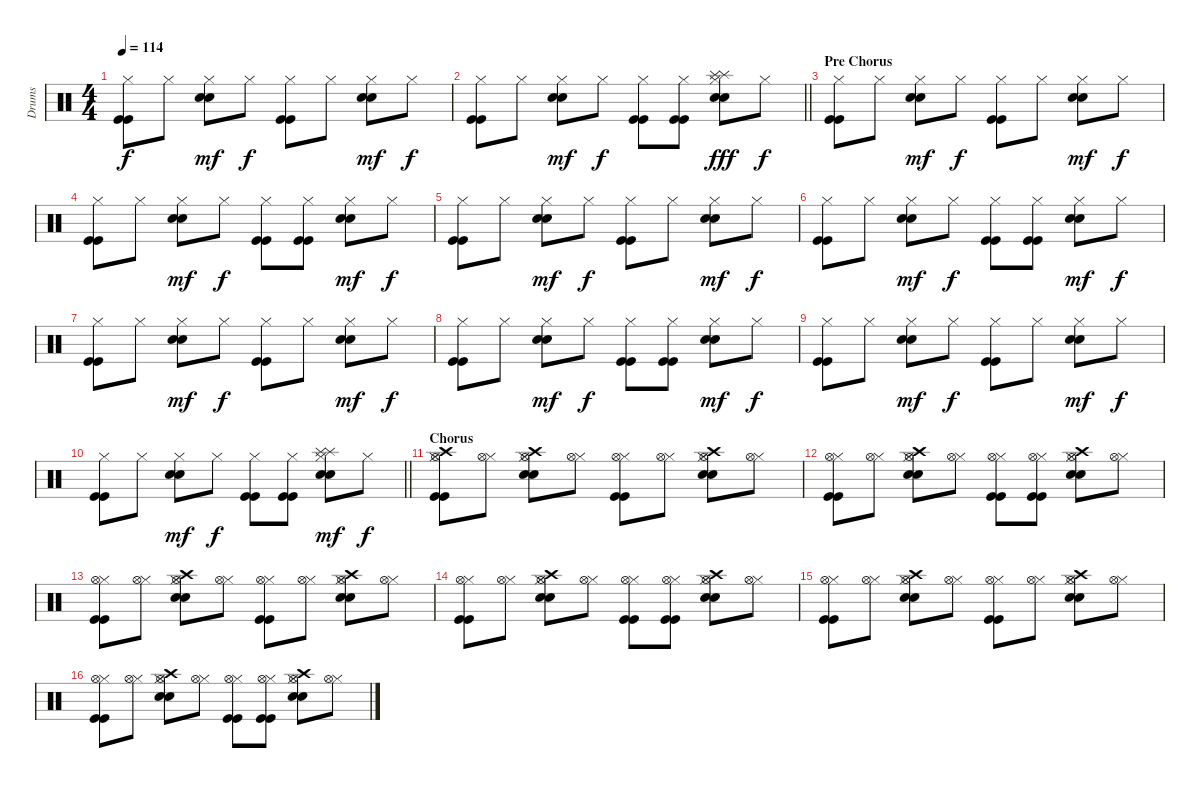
\track ("Drums" "Drums") {instrument percussion}
\staff {score}
\articulation defaults
\ts (4 4)
\tempo 114
\clef neutral
\ks c
("Kick (hit)" "Kick (hit)" "Hi-Hat (closed)").8{dy f} "Hi-Hat (closed)".8 ("Snare (hit) 2" "Snare (hit) 2" "Hi-Hat (closed)").8{dy mf} "Hi-Hat (closed)".8{dy f} ("Kick (hit)" "Kick (hit)" "Hi-Hat (closed)").8 "Hi-Hat (closed)".8 ("Snare (hit) 2" "Snare (hit) 2" "Hi-Hat (closed)").8{dy mf} "Hi-Hat (closed)".8{dy f} |
\barLineRight lightlight
("Kick (hit)" "Kick (hit)" "Hi-Hat (closed)").8 "Hi-Hat (closed)".8 ("Snare (hit) 2" "Snare (hit) 2" "Hi-Hat (closed)").8{dy mf} "Hi-Hat (closed)".8{dy f} ("Kick (hit)" "Kick (hit)" "Hi-Hat (closed)").8 ("Kick (hit)" "Kick (hit)" "Hi-Hat (closed)").8 ("Snare (hit) 2" "Snare (hit) 2" "Hi-Hat (closed)" "Splash (hit)" "Splash (hit)").8{dy fff} "Hi-Hat (closed)".8{dy f} |
\section ("" "Pre Chorus")
("Kick (hit)" "Kick (hit)" "Hi-Hat (closed)").8 "Hi-Hat (closed)".8 ("Snare (hit) 2" "Snare (hit) 2" "Hi-Hat (closed)").8{dy mf} "Hi-Hat (closed)".8{dy f} ("Kick (hit)" "Kick (hit)" "Hi-Hat (closed)").8 "Hi-Hat (closed)".8 ("Snare (hit) 2" "Snare (hit) 2" "Hi-Hat (closed)").8{dy mf} "Hi-Hat (closed)".8{dy f} |
("Kick (hit)" "Kick (hit)" "Hi-Hat (closed)").8 "Hi-Hat (closed)".8 ("Snare (hit) 2" "Snare (hit) 2" "Hi-Hat (closed)").8{dy mf} "Hi-Hat (closed)".8{dy f} ("Kick (hit)" "Kick (hit)" "Hi-Hat (closed)").8 ("Kick (hit)" "Kick (hit)" "Hi-Hat (closed)").8 ("Snare (hit) 2" "Snare (hit) 2" "Hi-Hat (closed)").8{dy mf} "Hi-Hat (closed)".8{dy f} |
("Kick (hit)" "Kick (hit)" "Hi-Hat (closed)").8 "Hi-Hat (closed)".8 ("Snare (hit) 2" "Snare (hit) 2" "Hi-Hat (closed)").8{dy mf} "Hi-Hat (closed)".8{dy f} ("Kick (hit)" "Kick (hit)" "Hi-Hat (closed)").8 "Hi-Hat (closed)".8 ("Snare (hit) 2" "Snare (hit) 2" "Hi-Hat (closed)").8{dy mf} "Hi-Hat (closed)".8{dy f} |
("Kick (hit)" "Kick (hit)" "Hi-Hat (closed)").8 "Hi-Hat (closed)".8 ("Snare (hit) 2" "Snare (hit) 2" "Hi-Hat (closed)").8{dy mf} "Hi-Hat (closed)".8{dy f} ("Kick (hit)" "Kick (hit)" "Hi-Hat (closed)").8 ("Kick (hit)" "Kick (hit)" "Hi-Hat (closed)").8 ("Snare (hit) 2" "Snare (hit) 2" "Hi-Hat (closed)").8{dy mf} "Hi-Hat (closed)".8{dy f} |
("Kick (hit)" "Kick (hit)" "Hi-Hat (closed)").8 "Hi-Hat (closed)".8 ("Snare (hit) 2" "Snare (hit) 2" "Hi-Hat (closed)").8{dy mf} "Hi-Hat (closed)".8{dy f} ("Kick (hit)" "Kick (hit)" "Hi-Hat (closed)").8 "Hi-Hat (closed)".8 ("Snare (hit) 2" "Snare (hit) 2" "Hi-Hat (closed)").8{dy mf} "Hi-Hat (closed)".8{dy f} |
("Kick (hit)" "Kick (hit)" "Hi-Hat (closed)").8 "Hi-Hat (closed)".8 ("Snare (hit) 2" "Snare (hit) 2" "Hi-Hat (closed)").8{dy mf} "Hi-Hat (closed)".8{dy f} ("Kick (hit)" "Kick (hit)" "Hi-Hat (closed)").8 ("Kick (hit)" "Kick (hit)" "Hi-Hat (closed)").8 ("Snare (hit) 2" "Snare (hit) 2" "Hi-Hat (closed)").8{dy mf} "Hi-Hat (closed)".8{dy f} |
("Kick (hit)" "Kick (hit)" "Hi-Hat (closed)").8 "Hi-Hat (closed)".8 ("Snare (hit) 2" "Snare (hit) 2" "Hi-Hat (closed)").8{dy mf} "Hi-Hat (closed)".8{dy f} ("Kick (hit)" "Kick (hit)" "Hi-Hat (closed)").8 "Hi-Hat (closed)".8 ("Snare (hit) 2" "Snare (hit) 2" "Hi-Hat (closed)").8{dy mf} "Hi-Hat (closed)".8{dy f} |
\barLineRight lightlight
("Kick (hit)" "Kick (hit)" "Hi-Hat (closed)").8 "Hi-Hat (closed)".8 ("Snare (hit) 2" "Snare (hit) 2" "Hi-Hat (closed)").8{dy mf} "Hi-Hat (closed)".8{dy f} ("Kick (hit)" "Kick (hit)" "Hi-Hat (closed)").8 ("Kick (hit)" "Kick (hit)" "Hi-Hat (closed)").8 ("Snare (hit) 2" "Snare (hit) 2" "Hi-Hat (closed)" "Splash (hit)" "Splash (hit)").8{dy mf} "Hi-Hat (closed)".8{dy f} |
\section ("" "Chorus")
("Kick (hit)" "Kick (hit)" "Hi-Hat (closed)" "Hi-Hat (open)" "Crash high (hit)").8 ("Hi-Hat (closed)" "Hi-Hat (open)").8 ("Snare (hit) 2" "Snare (hit) 2" "Hi-Hat (closed)" "Hi-Hat (open)" "Crash high (hit)").8 ("Hi-Hat (closed)" "Hi-Hat (open)").8 ("Kick (hit)" "Kick (hit)" "Hi-Hat (closed)" "Hi-Hat (open)").8 ("Hi-Hat (closed)" "Hi-Hat (open)").8 ("Snare (hit) 2" "Snare (hit) 2" "Hi-Hat (closed)" "Hi-Hat (open)" "Crash high (hit)").8 ("Hi-Hat (closed)" "Hi-Hat (open)").8 |
("Kick (hit)" "Kick (hit)" "Hi-Hat (closed)" "Hi-Hat (open)").8 ("Hi-Hat (closed)" "Hi-Hat (open)").8 ("Snare (hit) 2" "Snare (hit) 2" "Hi-Hat (closed)" "Hi-Hat (open)" "Crash high (hit)").8 ("Hi-Hat (closed)" "Hi-Hat (open)").8 ("Kick (hit)" "Kick (hit)" "Hi-Hat (closed)" "Hi-Hat (open)").8 ("Kick (hit)" "Kick (hit)" "Hi-Hat (closed)" "Hi-Hat (open)").8 ("Snare (hit) 2" "Snare (hit) 2" "Hi-Hat (closed)" "Hi-Hat (open)" "Crash high (hit)").8 ("Hi-Hat (closed)" "Hi-Hat (open)").8 |
("Kick (hit)" "Kick (hit)" "Hi-Hat (closed)" "Hi-Hat (open)").8 ("Hi-Hat (closed)" "Hi-Hat (open)").8 ("Snare (hit) 2" "Snare (hit) 2" "Hi-Hat (closed)" "Hi-Hat (open)" "Crash high (hit)").8 ("Hi-Hat (closed)" "Hi-Hat (open)").8 ("Kick (hit)" "Kick (hit)" "Hi-Hat (closed)" "Hi-Hat (open)").8 ("Hi-Hat (closed)" "Hi-Hat (open)").8 ("Snare (hit) 2" "Snare (hit) 2" "Hi-Hat (closed)" "Hi-Hat (open)" "Crash high (hit)").8 ("Hi-Hat (closed)" "Hi-Hat (open)").8 |
("Kick (hit)" "Kick (hit)" "Hi-Hat (closed)" "Hi-Hat (open)").8 ("Hi-Hat (closed)" "Hi-Hat (open)").8 ("Snare (hit) 2" "Snare (hit) 2" "Hi-Hat (closed)" "Hi-Hat (open)" "Crash high (hit)").8 ("Hi-Hat (closed)" "Hi-Hat (open)").8 ("Kick (hit)" "Kick (hit)" "Hi-Hat (closed)" "Hi-Hat (open)").8 ("Kick (hit)" "Kick (hit)" "Hi-Hat (closed)" "Hi-Hat (open)").8 ("Snare (hit) 2" "Snare (hit) 2" "Hi-Hat (closed)" "Hi-Hat (open)" "Crash high (hit)").8 ("Hi-Hat (closed)" "Hi-Hat (open)").8 |
("Kick (hit)" "Kick (hit)" "Hi-Hat (closed)" "Hi-Hat (open)").8 ("Hi-Hat (closed)" "Hi-Hat (open)").8 ("Snare (hit) 2" "Snare (hit) 2" "Hi-Hat (closed)" "Hi-Hat (open)" "Crash high (hit)").8 ("Hi-Hat (closed)" "Hi-Hat (open)").8 ("Kick (hit)" "Kick (hit)" "Hi-Hat (closed)" "Hi-Hat (open)").8 ("Hi-Hat (closed)" "Hi-Hat (open)").8 ("Snare (hit) 2" "Snare (hit) 2" "Hi-Hat (closed)" "Hi-Hat (open)" "Crash high (hit)").8 ("Hi-Hat (closed)" "Hi-Hat (open)").8 |
("Kick (hit)" "Kick (hit)" "Hi-Hat (closed)" "Hi-Hat (open)").8 ("Hi-Hat (closed)" "Hi-Hat (open)").8 ("Snare (hit) 2" "Snare (hit) 2" "Hi-Hat (closed)" "Hi-Hat (open)" "Crash high (hit)").8 ("Hi-Hat (closed)" "Hi-Hat (open)").8 ("Kick (hit)" "Kick (hit)" "Hi-Hat (closed)" "Hi-Hat (open)").8 ("Kick (hit)" "Kick (hit)" "Hi-Hat (closed)" "Hi-Hat (open)").8 ("Snare (hit) 2" "Snare (hit) 2" "Hi-Hat (closed)" "Hi-Hat (open)" "Crash high (hit)").8 ("Hi-Hat (closed)" "Hi-Hat (open)").8
